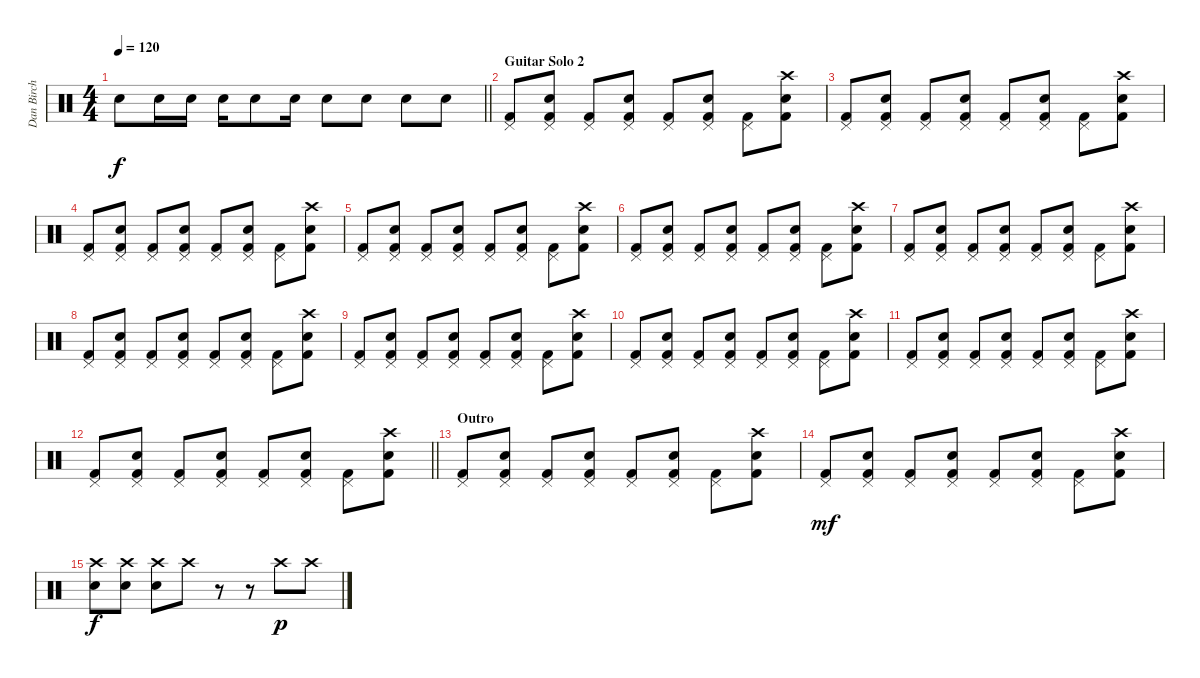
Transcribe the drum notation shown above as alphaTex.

\track ("Dan Birch" "Dan Birch") {instrument percussion}
\staff {score}
\articulation defaults
\ts (4 4)
\tempo 120
\clef neutral
\barLineRight lightlight
\ks c "Snare (hit) 2".8{dy f} "Snare (hit) 2".16 "Snare (hit) 2".16 "Snare (hit) 2".16 "Snare (hit) 2".8 "Snare (hit) 2".16 "Snare (hit) 2".8 "Snare (hit) 2".8 "Snare (hit) 2".8 "Snare (hit) 2".8
|
\section ("" "Guitar Solo 2")
("Pedal Hi-Hat (hit)" "Kick (hit) 2").8 ("Pedal Hi-Hat (hit)" "Snare (hit) 2" "Kick (hit) 2").8 ("Pedal Hi-Hat (hit)" "Kick (hit) 2").8 ("Pedal Hi-Hat (hit)" "Snare (hit) 2" "Kick (hit) 2").8 ("Pedal Hi-Hat (hit)" "Kick (hit) 2").8 ("Pedal Hi-Hat (hit)" "Snare (hit) 2" "Kick (hit) 2").8 ("Pedal Hi-Hat (hit)" "Kick (hit) 2").8 ("Crash high (hit)" "Snare (hit) 2" "Kick (hit) 2").8 |
("Pedal Hi-Hat (hit)" "Kick (hit) 2").8 ("Pedal Hi-Hat (hit)" "Snare (hit) 2" "Kick (hit) 2").8 ("Pedal Hi-Hat (hit)" "Kick (hit) 2").8 ("Pedal Hi-Hat (hit)" "Snare (hit) 2" "Kick (hit) 2").8 ("Pedal Hi-Hat (hit)" "Kick (hit) 2").8 ("Pedal Hi-Hat (hit)" "Snare (hit) 2" "Kick (hit) 2").8 ("Pedal Hi-Hat (hit)" "Kick (hit) 2").8 ("Crash high (hit)" "Snare (hit) 2" "Kick (hit) 2").8 |
("Pedal Hi-Hat (hit)" "Kick (hit) 2").8 ("Pedal Hi-Hat (hit)" "Snare (hit) 2" "Kick (hit) 2").8 ("Pedal Hi-Hat (hit)" "Kick (hit) 2").8 ("Pedal Hi-Hat (hit)" "Snare (hit) 2" "Kick (hit) 2").8 ("Pedal Hi-Hat (hit)" "Kick (hit) 2").8 ("Pedal Hi-Hat (hit)" "Snare (hit) 2" "Kick (hit) 2").8 ("Pedal Hi-Hat (hit)" "Kick (hit) 2").8 ("Crash high (hit)" "Snare (hit) 2" "Kick (hit) 2").8 |
("Pedal Hi-Hat (hit)" "Kick (hit) 2").8 ("Pedal Hi-Hat (hit)" "Snare (hit) 2" "Kick (hit) 2").8 ("Pedal Hi-Hat (hit)" "Kick (hit) 2").8 ("Pedal Hi-Hat (hit)" "Snare (hit) 2" "Kick (hit) 2").8 ("Pedal Hi-Hat (hit)" "Kick (hit) 2").8 ("Pedal Hi-Hat (hit)" "Snare (hit) 2" "Kick (hit) 2").8 ("Pedal Hi-Hat (hit)" "Kick (hit) 2").8 ("Crash high (hit)" "Snare (hit) 2" "Kick (hit) 2").8 |
("Pedal Hi-Hat (hit)" "Kick (hit) 2").8 ("Pedal Hi-Hat (hit)" "Snare (hit) 2" "Kick (hit) 2").8 ("Pedal Hi-Hat (hit)" "Kick (hit) 2").8 ("Pedal Hi-Hat (hit)" "Snare (hit) 2" "Kick (hit) 2").8 ("Pedal Hi-Hat (hit)" "Kick (hit) 2").8 ("Pedal Hi-Hat (hit)" "Snare (hit) 2" "Kick (hit) 2").8 ("Pedal Hi-Hat (hit)" "Kick (hit) 2").8 ("Crash high (hit)" "Snare (hit) 2" "Kick (hit) 2").8 |
("Pedal Hi-Hat (hit)" "Kick (hit) 2").8 ("Pedal Hi-Hat (hit)" "Snare (hit) 2" "Kick (hit) 2").8 ("Pedal Hi-Hat (hit)" "Kick (hit) 2").8 ("Pedal Hi-Hat (hit)" "Snare (hit) 2" "Kick (hit) 2").8 ("Pedal Hi-Hat (hit)" "Kick (hit) 2").8 ("Pedal Hi-Hat (hit)" "Snare (hit) 2" "Kick (hit) 2").8 ("Pedal Hi-Hat (hit)" "Kick (hit) 2").8 ("Crash high (hit)" "Snare (hit) 2" "Kick (hit) 2").8 |
("Pedal Hi-Hat (hit)" "Kick (hit) 2").8 ("Pedal Hi-Hat (hit)" "Snare (hit) 2" "Kick (hit) 2").8 ("Pedal Hi-Hat (hit)" "Kick (hit) 2").8 ("Pedal Hi-Hat (hit)" "Snare (hit) 2" "Kick (hit) 2").8 ("Pedal Hi-Hat (hit)" "Kick (hit) 2").8 ("Pedal Hi-Hat (hit)" "Snare (hit) 2" "Kick (hit) 2").8 ("Pedal Hi-Hat (hit)" "Kick (hit) 2").8 ("Crash high (hit)" "Snare (hit) 2" "Kick (hit) 2").8 |
("Pedal Hi-Hat (hit)" "Kick (hit) 2").8 ("Pedal Hi-Hat (hit)" "Snare (hit) 2" "Kick (hit) 2").8 ("Pedal Hi-Hat (hit)" "Kick (hit) 2").8 ("Pedal Hi-Hat (hit)" "Snare (hit) 2" "Kick (hit) 2").8 ("Pedal Hi-Hat (hit)" "Kick (hit) 2").8 ("Pedal Hi-Hat (hit)" "Snare (hit) 2" "Kick (hit) 2").8 ("Pedal Hi-Hat (hit)" "Kick (hit) 2").8 ("Crash high (hit)" "Snare (hit) 2" "Kick (hit) 2").8 |
("Pedal Hi-Hat (hit)" "Kick (hit) 2").8 ("Pedal Hi-Hat (hit)" "Snare (hit) 2" "Kick (hit) 2").8 ("Pedal Hi-Hat (hit)" "Kick (hit) 2").8 ("Pedal Hi-Hat (hit)" "Snare (hit) 2" "Kick (hit) 2").8 ("Pedal Hi-Hat (hit)" "Kick (hit) 2").8 ("Pedal Hi-Hat (hit)" "Snare (hit) 2" "Kick (hit) 2").8 ("Pedal Hi-Hat (hit)" "Kick (hit) 2").8 ("Crash high (hit)" "Snare (hit) 2" "Kick (hit) 2").8 |
("Pedal Hi-Hat (hit)" "Kick (hit) 2").8 ("Pedal Hi-Hat (hit)" "Snare (hit) 2" "Kick (hit) 2").8 ("Pedal Hi-Hat (hit)" "Kick (hit) 2").8 ("Pedal Hi-Hat (hit)" "Snare (hit) 2" "Kick (hit) 2").8 ("Pedal Hi-Hat (hit)" "Kick (hit) 2").8 ("Pedal Hi-Hat (hit)" "Snare (hit) 2" "Kick (hit) 2").8 ("Pedal Hi-Hat (hit)" "Kick (hit) 2").8 ("Crash high (hit)" "Snare (hit) 2" "Kick (hit) 2").8 |
\barLineRight lightlight
("Pedal Hi-Hat (hit)" "Kick (hit) 2").8 ("Pedal Hi-Hat (hit)" "Snare (hit) 2" "Kick (hit) 2").8 ("Pedal Hi-Hat (hit)" "Kick (hit) 2").8 ("Pedal Hi-Hat (hit)" "Snare (hit) 2" "Kick (hit) 2").8 ("Pedal Hi-Hat (hit)" "Kick (hit) 2").8 ("Pedal Hi-Hat (hit)" "Snare (hit) 2" "Kick (hit) 2").8 ("Pedal Hi-Hat (hit)" "Kick (hit) 2").8 ("Crash high (hit)" "Snare (hit) 2" "Kick (hit) 2").8 |
\section ("" "Outro")
("Pedal Hi-Hat (hit)" "Kick (hit) 2").8 ("Pedal Hi-Hat (hit)" "Snare (hit) 2" "Kick (hit) 2").8 ("Pedal Hi-Hat (hit)" "Kick (hit) 2").8 ("Pedal Hi-Hat (hit)" "Snare (hit) 2" "Kick (hit) 2").8 ("Pedal Hi-Hat (hit)" "Kick (hit) 2").8 ("Pedal Hi-Hat (hit)" "Snare (hit) 2" "Kick (hit) 2").8 ("Pedal Hi-Hat (hit)" "Kick (hit) 2").8 ("Crash high (hit)" "Snare (hit) 2" "Kick (hit) 2").8 |
("Pedal Hi-Hat (hit)" "Kick (hit) 2").8{dy mf} ("Pedal Hi-Hat (hit)" "Snare (hit) 2" "Kick (hit) 2").8 ("Pedal Hi-Hat (hit)" "Kick (hit) 2").8 ("Pedal Hi-Hat (hit)" "Snare (hit) 2" "Kick (hit) 2").8 ("Pedal Hi-Hat (hit)" "Kick (hit) 2").8 ("Pedal Hi-Hat (hit)" "Snare (hit) 2" "Kick (hit) 2").8 ("Pedal Hi-Hat (hit)" "Kick (hit) 2").8 ("Crash high (hit)" "Snare (hit) 2" "Kick (hit) 2").8 |
("Crash high (hit)" "Snare (hit) 2").8{dy f} ("Crash high (hit)" "Snare (hit) 2").8 ("Crash high (hit)" "Snare (hit) 2").8 "Crash high (hit)".8 r.8 r.8 "Crash high (hit)".8{dy p} "Crash high (hit)".8
